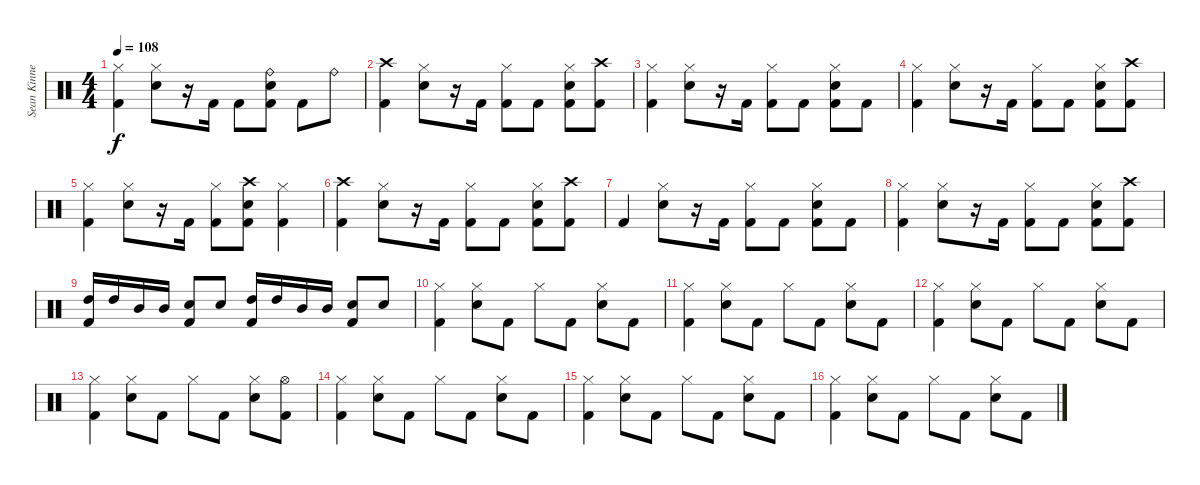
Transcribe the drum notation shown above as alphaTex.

\track ("Sean Kinney - Drums" "Sean Kinne") {instrument percussion}
\staff {score}
\articulation defaults
\ts (4 4)
\tempo 108
\clef neutral
\ks c
("Hi-Hat (closed)" "Kick (hit) 2").4{dy f} ("Hi-Hat (closed)" "Electric Snare (hit)").8 r.16 "Kick (hit) 2".16 "Kick (hit) 2".8 ("Ride (bell)" "Electric Snare (hit)" "Kick (hit) 2").8 "Kick (hit) 2".8 "Ride (bell)".8 |
("Crash high (hit)" "Kick (hit) 2").4 ("Hi-Hat (closed)" "Electric Snare (hit)").8 r.16 "Kick (hit) 2".16 ("Hi-Hat (closed)" "Kick (hit) 2").8 "Kick (hit) 2".8 ("Hi-Hat (closed)" "Electric Snare (hit)" "Kick (hit) 2").8 ("Crash high (hit)" "Kick (hit) 2").8 |
("Hi-Hat (closed)" "Kick (hit) 2").4 ("Hi-Hat (closed)" "Electric Snare (hit)").8 r.16 "Kick (hit) 2".16 ("Hi-Hat (closed)" "Kick (hit) 2").8 "Kick (hit) 2".8 ("Hi-Hat (closed)" "Electric Snare (hit)" "Kick (hit) 2").8 "Kick (hit) 2".8 |
("Hi-Hat (closed)" "Kick (hit) 2").4 ("Hi-Hat (closed)" "Electric Snare (hit)").8 r.16 "Kick (hit) 2".16 ("Hi-Hat (closed)" "Kick (hit) 2").8 "Kick (hit) 2".8 ("Hi-Hat (closed)" "Electric Snare (hit)" "Kick (hit) 2").8 ("Crash high (hit)" "Kick (hit) 2").8 |
("Hi-Hat (closed)" "Kick (hit) 2").4 ("Hi-Hat (closed)" "Electric Snare (hit)").8 r.16 "Kick (hit) 2".16 ("Hi-Hat (closed)" "Kick (hit) 2").8 ("Crash high (hit)" "Electric Snare (hit)" "Kick (hit) 2").8 ("Hi-Hat (closed)" "Kick (hit) 2").4 |
("Crash high (hit)" "Kick (hit) 2").4 ("Hi-Hat (closed)" "Electric Snare (hit)").8 r.16 "Kick (hit) 2".16 ("Hi-Hat (closed)" "Kick (hit) 2").8 "Kick (hit) 2".8 ("Hi-Hat (closed)" "Electric Snare (hit)" "Kick (hit) 2").8 ("Crash high (hit)" "Kick (hit) 2").8 |
"Kick (hit) 2".4 ("Hi-Hat (closed)" "Electric Snare (hit)").8 r.16 "Kick (hit) 2".16 ("Hi-Hat (closed)" "Kick (hit) 2").8 "Kick (hit) 2".8 ("Hi-Hat (closed)" "Electric Snare (hit)" "Kick (hit) 2").8 "Kick (hit) 2".8 |
("Hi-Hat (closed)" "Kick (hit) 2").4 ("Hi-Hat (closed)" "Electric Snare (hit)").8 r.16 "Kick (hit) 2".16 ("Hi-Hat (closed)" "Kick (hit) 2").8 "Kick (hit) 2".8 ("Hi-Hat (closed)" "Electric Snare (hit)" "Kick (hit) 2").8 ("Crash high (hit)" "Kick (hit) 2").8 |
("High Tom (hit)" "Kick (hit) 2").16 "High Tom (hit)".16 "Mid Tom (hit)".16 "Mid Tom (hit)".16 ("Electric Snare (hit)" "Kick (hit) 2").8 "Electric Snare (hit)".8 ("High Tom (hit)" "Kick (hit) 2").16 "High Tom (hit)".16 "Mid Tom (hit)".16 "Mid Tom (hit)".16 ("Electric Snare (hit)" "Kick (hit) 2").8 "Electric Snare (hit)".8 |
("Hi-Hat (closed)" "Kick (hit) 2").4 ("Hi-Hat (closed)" "Electric Snare (hit)").8 "Kick (hit) 2".8 "Hi-Hat (closed)".8 "Kick (hit) 2".8 ("Hi-Hat (closed)" "Electric Snare (hit)").8 "Kick (hit) 2".8 |
("Hi-Hat (closed)" "Kick (hit) 2").4 ("Hi-Hat (closed)" "Electric Snare (hit)").8 "Kick (hit) 2".8 "Hi-Hat (closed)".8 "Kick (hit) 2".8 ("Hi-Hat (closed)" "Electric Snare (hit)").8 "Kick (hit) 2".8 |
("Hi-Hat (closed)" "Kick (hit) 2").4 ("Hi-Hat (closed)" "Electric Snare (hit)").8 "Kick (hit) 2".8 "Hi-Hat (closed)".8 "Kick (hit) 2".8 ("Hi-Hat (closed)" "Electric Snare (hit)").8 "Kick (hit) 2".8 |
("Hi-Hat (closed)" "Kick (hit) 2").4 ("Hi-Hat (closed)" "Electric Snare (hit)").8 "Kick (hit) 2".8 "Hi-Hat (closed)".8 "Kick (hit) 2".8 ("Hi-Hat (closed)" "Electric Snare (hit)").8 ("Hi-Hat (open)" "Kick (hit) 2").8 |
("Hi-Hat (closed)" "Kick (hit) 2").4 ("Hi-Hat (closed)" "Electric Snare (hit)").8 "Kick (hit) 2".8 "Hi-Hat (closed)".8 "Kick (hit) 2".8 ("Hi-Hat (closed)" "Electric Snare (hit)").8 "Kick (hit) 2".8 |
("Hi-Hat (closed)" "Kick (hit) 2").4 ("Hi-Hat (closed)" "Electric Snare (hit)").8 "Kick (hit) 2".8 "Hi-Hat (closed)".8 "Kick (hit) 2".8 ("Hi-Hat (closed)" "Electric Snare (hit)").8 "Kick (hit) 2".8 |
("Hi-Hat (closed)" "Kick (hit) 2").4 ("Hi-Hat (closed)" "Electric Snare (hit)").8 "Kick (hit) 2".8 "Hi-Hat (closed)".8 "Kick (hit) 2".8 ("Hi-Hat (closed)" "Electric Snare (hit)").8 "Kick (hit) 2".8
